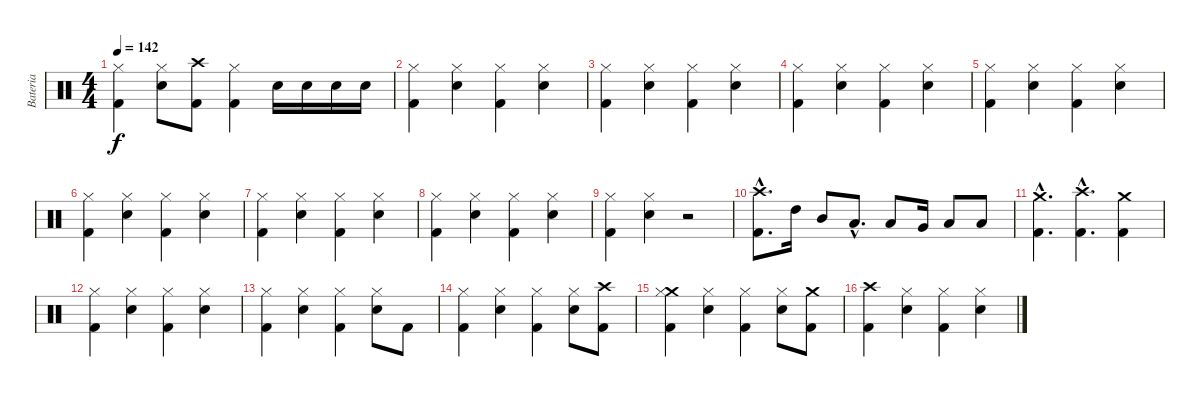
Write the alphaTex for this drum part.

\track ("Bateria" "Bateria") {instrument percussion}
\staff {score}
\articulation defaults
\ts (4 4)
\tempo 142
\clef neutral
\ks c
("Hi-Hat (closed)" "Kick (hit) 2").4{dy f} ("Hi-Hat (closed)" "Electric Snare (hit)").8 ("Crash high (hit)" "Kick (hit) 2").8 ("Hi-Hat (closed)" "Kick (hit) 2").4 "Electric Snare (hit)".16 "Electric Snare (hit)".16 "Electric Snare (hit)".16 "Electric Snare (hit)".16 |
("Hi-Hat (closed)" "Kick (hit) 2").4 ("Hi-Hat (closed)" "Electric Snare (hit)").4 ("Hi-Hat (closed)" "Kick (hit) 2").4 ("Hi-Hat (closed)" "Electric Snare (hit)").4 |
("Hi-Hat (closed)" "Kick (hit) 2").4 ("Hi-Hat (closed)" "Electric Snare (hit)").4 ("Hi-Hat (closed)" "Kick (hit) 2").4 ("Hi-Hat (closed)" "Electric Snare (hit)").4 |
("Hi-Hat (closed)" "Kick (hit) 2").4 ("Hi-Hat (closed)" "Electric Snare (hit)").4 ("Hi-Hat (closed)" "Kick (hit) 2").4 ("Hi-Hat (closed)" "Electric Snare (hit)").4 |
("Hi-Hat (closed)" "Kick (hit) 2").4 ("Hi-Hat (closed)" "Electric Snare (hit)").4 ("Hi-Hat (closed)" "Kick (hit) 2").4 ("Hi-Hat (closed)" "Electric Snare (hit)").4 |
("Hi-Hat (closed)" "Kick (hit) 2").4 ("Hi-Hat (closed)" "Electric Snare (hit)").4 ("Hi-Hat (closed)" "Kick (hit) 2").4 ("Hi-Hat (closed)" "Electric Snare (hit)").4 |
("Hi-Hat (closed)" "Kick (hit) 2").4 ("Hi-Hat (closed)" "Electric Snare (hit)").4 ("Hi-Hat (closed)" "Kick (hit) 2").4 ("Hi-Hat (closed)" "Electric Snare (hit)").4 |
("Hi-Hat (closed)" "Kick (hit) 2").4 ("Hi-Hat (closed)" "Electric Snare (hit)").4 ("Hi-Hat (closed)" "Kick (hit) 2").4 ("Hi-Hat (closed)" "Electric Snare (hit)").4 |
("Hi-Hat (closed)" "Kick (hit) 2").4 ("Hi-Hat (closed)" "Electric Snare (hit)").4 r.2 |
("Crash high (hit)"{hac} "Kick (hit) 2"{hac}).8{d} "High Tom (hit)".16 "Mid Tom (hit)".8 "Low Tom (hit)"{hac}.8{d} "Low Tom (hit)".8 "Very Low Tom (hit)".16 "Low Floor Tom (hit)".8 "Low Floor Tom (hit)".8 |
("Crash medium (hit)"{hac} "Kick (hit) 2"{hac}).4{d} ("Crash high (hit)"{hac} "Kick (hit) 2"{hac}).4{d} ("Crash medium (hit)" "Kick (hit) 2").4 |
("Hi-Hat (closed)" "Kick (hit) 2").4 ("Hi-Hat (closed)" "Electric Snare (hit)").4 ("Hi-Hat (closed)" "Kick (hit) 2").4 ("Hi-Hat (closed)" "Electric Snare (hit)").4 |
("Hi-Hat (closed)" "Kick (hit) 2").4 ("Hi-Hat (closed)" "Electric Snare (hit)").4 ("Hi-Hat (closed)" "Kick (hit) 2").4 ("Hi-Hat (closed)" "Electric Snare (hit)").8 "Kick (hit) 2".8 |
("Hi-Hat (closed)" "Kick (hit) 2").4 ("Hi-Hat (closed)" "Electric Snare (hit)").4 ("Hi-Hat (closed)" "Kick (hit) 2").4 ("Hi-Hat (closed)" "Electric Snare (hit)").8 ("Crash high (hit)" "Kick (hit) 2").8 |
("Crash medium (hit)" "Hi-Hat (closed)" "Kick (hit) 2").4 ("Hi-Hat (closed)" "Electric Snare (hit)").4 ("Hi-Hat (closed)" "Kick (hit) 2").4 ("Hi-Hat (closed)" "Electric Snare (hit)").8 ("Crash medium (hit)" "Kick (hit) 2").8 |
("Crash high (hit)" "Kick (hit) 2").4 ("Hi-Hat (closed)" "Electric Snare (hit)").4 ("Hi-Hat (closed)" "Kick (hit) 2").4 ("Hi-Hat (closed)" "Electric Snare (hit)").4
